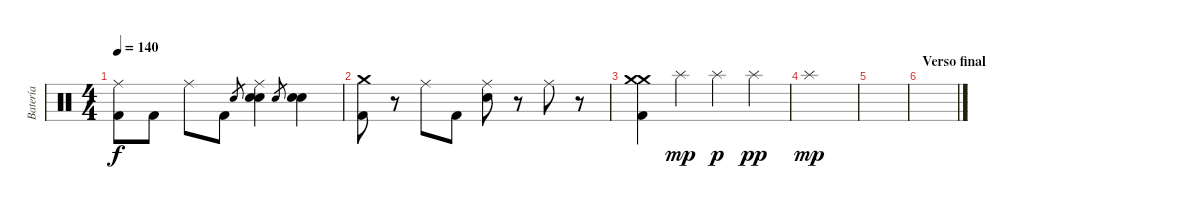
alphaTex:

\track ("Batería" "Batería") {instrument percussion}
\staff {score}
\articulation defaults
\ts (4 4)
\tempo 140
\clef neutral
\ks c
("Ride (middle)" "Kick (hit) 2").8{dy f} "Kick (hit) 2".8 "Ride (middle)".8 "Kick (hit) 2".8 "Snare (hit) 2".8{gr} ("Ride (middle)" "Snare (hit) 2" "Snare (hit) 2").4 "Snare (hit) 2".8{gr} ("Snare (hit) 2" "Snare (hit) 2").4 |
("Crash medium (hit)" "Kick (hit) 2").8 r.8 "Ride (middle)".8 "Kick (hit) 2".8 ("Ride (middle)" "Snare (hit) 2").8 r.8 "Ride (middle)".8 r.8 |
("Crash medium (hit)" "Crash medium (hit)" "Kick (hit) 2").4 "Splash (hit)".4{dy mp} "Splash (hit)".4{dy p} "Splash (hit)".4{dy pp} |
"Splash (hit)".1{dy mp} |
|
\section ("" "Verso final")
